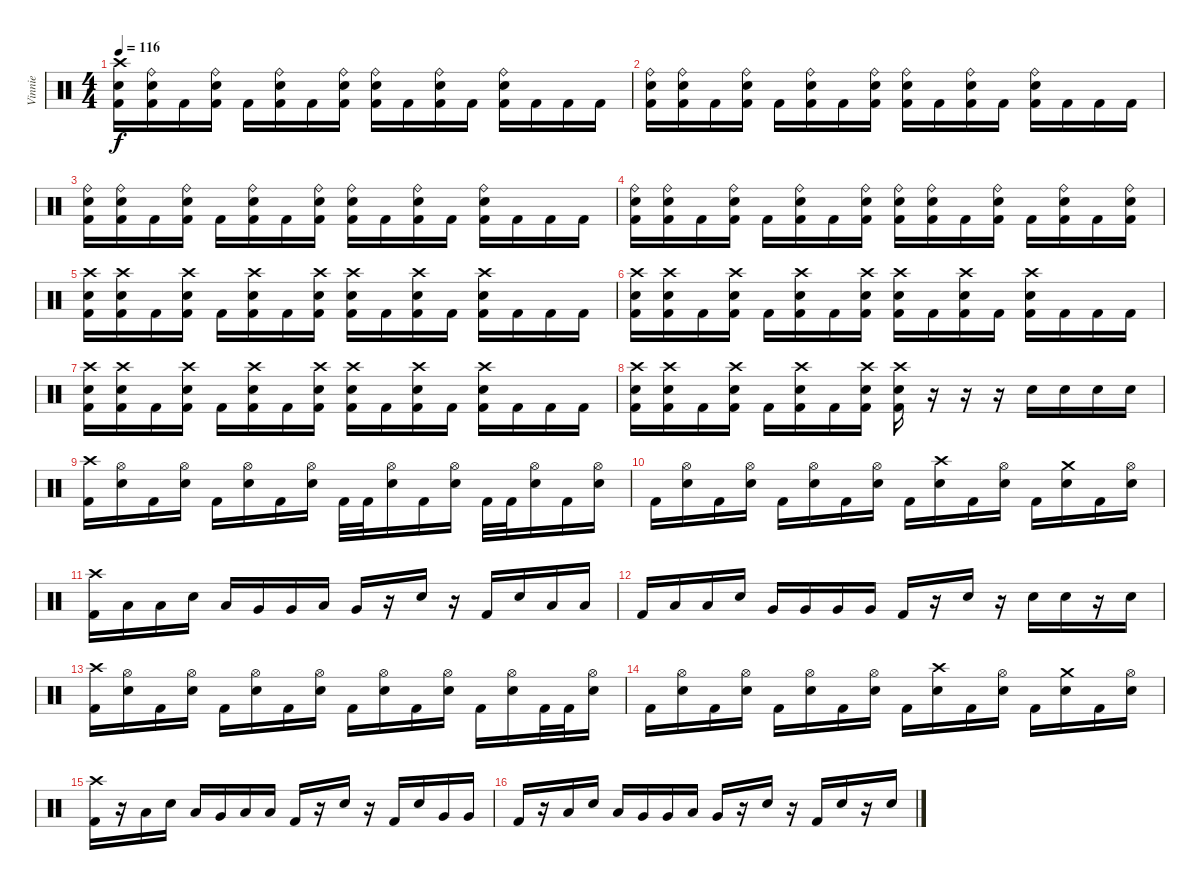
\track ("Vinnie" "Vinnie") {instrument percussion}
\staff {score}
\articulation defaults
\ts (4 4)
\tempo 116
\clef neutral
\ks c
("Crash high (hit)" "Electric Snare (hit)" "Kick (hit) 2").16{dy f} ("Ride (bell)" "Electric Snare (hit)" "Kick (hit) 2").16 "Kick (hit) 2".16 ("Ride (bell)" "Electric Snare (hit)" "Kick (hit) 2").16 "Kick (hit) 2".16 ("Ride (bell)" "Electric Snare (hit)" "Kick (hit) 2").16 "Kick (hit) 2".16 ("Ride (bell)" "Electric Snare (hit)" "Kick (hit) 2").16 ("Ride (bell)" "Electric Snare (hit)" "Kick (hit) 2").16 "Kick (hit) 2".16 ("Ride (bell)" "Electric Snare (hit)" "Kick (hit) 2").16 "Kick (hit) 2".16 ("Ride (bell)" "Electric Snare (hit)" "Kick (hit) 2").16 "Kick (hit) 2".16 "Kick (hit) 2".16 "Kick (hit) 2".16 |
("Ride (bell)" "Electric Snare (hit)" "Kick (hit) 2").16 ("Ride (bell)" "Electric Snare (hit)" "Kick (hit) 2").16 "Kick (hit) 2".16 ("Ride (bell)" "Electric Snare (hit)" "Kick (hit) 2").16 "Kick (hit) 2".16 ("Ride (bell)" "Electric Snare (hit)" "Kick (hit) 2").16 "Kick (hit) 2".16 ("Ride (bell)" "Electric Snare (hit)" "Kick (hit) 2").16 ("Ride (bell)" "Electric Snare (hit)" "Kick (hit) 2").16 "Kick (hit) 2".16 ("Ride (bell)" "Electric Snare (hit)" "Kick (hit) 2").16 "Kick (hit) 2".16 ("Ride (bell)" "Electric Snare (hit)" "Kick (hit) 2").16 "Kick (hit) 2".16 "Kick (hit) 2".16 "Kick (hit) 2".16 |
("Ride (bell)" "Electric Snare (hit)" "Kick (hit) 2").16 ("Ride (bell)" "Electric Snare (hit)" "Kick (hit) 2").16 "Kick (hit) 2".16 ("Ride (bell)" "Electric Snare (hit)" "Kick (hit) 2").16 "Kick (hit) 2".16 ("Ride (bell)" "Electric Snare (hit)" "Kick (hit) 2").16 "Kick (hit) 2".16 ("Ride (bell)" "Electric Snare (hit)" "Kick (hit) 2").16 ("Ride (bell)" "Electric Snare (hit)" "Kick (hit) 2").16 "Kick (hit) 2".16 ("Ride (bell)" "Electric Snare (hit)" "Kick (hit) 2").16 "Kick (hit) 2".16 ("Ride (bell)" "Electric Snare (hit)" "Kick (hit) 2").16 "Kick (hit) 2".16 "Kick (hit) 2".16 "Kick (hit) 2".16 |
("Ride (bell)" "Electric Snare (hit)" "Kick (hit) 2").16 ("Ride (bell)" "Electric Snare (hit)" "Kick (hit) 2").16 "Kick (hit) 2".16 ("Ride (bell)" "Electric Snare (hit)" "Kick (hit) 2").16 "Kick (hit) 2".16 ("Ride (bell)" "Electric Snare (hit)" "Kick (hit) 2").16 "Kick (hit) 2".16 ("Ride (bell)" "Electric Snare (hit)" "Kick (hit) 2").16 ("Ride (bell)" "Electric Snare (hit)" "Kick (hit) 2").16 ("Ride (bell)" "Electric Snare (hit)" "Kick (hit) 2").16 "Kick (hit) 2".16 ("Ride (bell)" "Electric Snare (hit)" "Kick (hit) 2").16 "Kick (hit) 2".16 ("Ride (bell)" "Electric Snare (hit)" "Kick (hit) 2").16 "Kick (hit) 2".16 ("Ride (bell)" "Electric Snare (hit)" "Kick (hit) 2").16 |
("Crash high (hit)" "Electric Snare (hit)" "Kick (hit) 2").16 ("Crash high (hit)" "Electric Snare (hit)" "Kick (hit) 2").16 "Kick (hit) 2".16 ("Crash high (hit)" "Electric Snare (hit)" "Kick (hit) 2").16 "Kick (hit) 2".16 ("Crash high (hit)" "Electric Snare (hit)" "Kick (hit) 2").16 "Kick (hit) 2".16 ("Crash high (hit)" "Electric Snare (hit)" "Kick (hit) 2").16 ("Crash high (hit)" "Electric Snare (hit)" "Kick (hit) 2").16 "Kick (hit) 2".16 ("Crash high (hit)" "Electric Snare (hit)" "Kick (hit) 2").16 "Kick (hit) 2".16 ("Crash high (hit)" "Electric Snare (hit)" "Kick (hit) 2").16 "Kick (hit) 2".16 "Kick (hit) 2".16 "Kick (hit) 2".16 |
("Crash high (hit)" "Electric Snare (hit)" "Kick (hit) 2").16 ("Crash high (hit)" "Electric Snare (hit)" "Kick (hit) 2").16 "Kick (hit) 2".16 ("Crash high (hit)" "Electric Snare (hit)" "Kick (hit) 2").16 "Kick (hit) 2".16 ("Crash high (hit)" "Electric Snare (hit)" "Kick (hit) 2").16 "Kick (hit) 2".16 ("Crash high (hit)" "Electric Snare (hit)" "Kick (hit) 2").16 ("Crash high (hit)" "Electric Snare (hit)" "Kick (hit) 2").16 "Kick (hit) 2".16 ("Crash high (hit)" "Electric Snare (hit)" "Kick (hit) 2").16 "Kick (hit) 2".16 ("Crash high (hit)" "Electric Snare (hit)" "Kick (hit) 2").16 "Kick (hit) 2".16 "Kick (hit) 2".16 "Kick (hit) 2".16 |
("Crash high (hit)" "Electric Snare (hit)" "Kick (hit) 2").16 ("Crash high (hit)" "Electric Snare (hit)" "Kick (hit) 2").16 "Kick (hit) 2".16 ("Crash high (hit)" "Electric Snare (hit)" "Kick (hit) 2").16 "Kick (hit) 2".16 ("Crash high (hit)" "Electric Snare (hit)" "Kick (hit) 2").16 "Kick (hit) 2".16 ("Crash high (hit)" "Electric Snare (hit)" "Kick (hit) 2").16 ("Crash high (hit)" "Electric Snare (hit)" "Kick (hit) 2").16 "Kick (hit) 2".16 ("Crash high (hit)" "Electric Snare (hit)" "Kick (hit) 2").16 "Kick (hit) 2".16 ("Crash high (hit)" "Electric Snare (hit)" "Kick (hit) 2").16 "Kick (hit) 2".16 "Kick (hit) 2".16 "Kick (hit) 2".16 |
("Crash high (hit)" "Electric Snare (hit)" "Kick (hit) 2").16 ("Crash high (hit)" "Electric Snare (hit)" "Kick (hit) 2").16 "Kick (hit) 2".16 ("Crash high (hit)" "Electric Snare (hit)" "Kick (hit) 2").16 "Kick (hit) 2".16 ("Crash high (hit)" "Electric Snare (hit)" "Kick (hit) 2").16 "Kick (hit) 2".16 ("Crash high (hit)" "Electric Snare (hit)" "Kick (hit) 2").16 ("Crash high (hit)" "Electric Snare (hit)" "Kick (hit) 2").16 r.16 r.16 r.16 "Electric Snare (hit)".16 "Electric Snare (hit)".16 "Electric Snare (hit)".16 "Electric Snare (hit)".16 |
("Crash high (hit)" "Kick (hit) 2").16 ("Hi-Hat (open)" "Electric Snare (hit)").16 "Kick (hit) 2".16 ("Hi-Hat (open)" "Electric Snare (hit)").16 "Kick (hit) 2".16 ("Hi-Hat (open)" "Electric Snare (hit)").16 "Kick (hit) 2".16 ("Hi-Hat (open)" "Electric Snare (hit)").16 "Kick (hit) 2".32 "Kick (hit) 2".32 ("Hi-Hat (open)" "Electric Snare (hit)").16 "Kick (hit) 2".16 ("Hi-Hat (open)" "Electric Snare (hit)").16 "Kick (hit) 2".32 "Kick (hit) 2".32 ("Hi-Hat (open)" "Electric Snare (hit)").16 "Kick (hit) 2".16 ("Hi-Hat (open)" "Electric Snare (hit)").16 |
"Kick (hit) 2".16 ("Hi-Hat (open)" "Electric Snare (hit)").16 "Kick (hit) 2".16 ("Hi-Hat (open)" "Electric Snare (hit)").16 "Kick (hit) 2".16 ("Hi-Hat (open)" "Electric Snare (hit)").16 "Kick (hit) 2".16 ("Hi-Hat (open)" "Electric Snare (hit)").16 "Kick (hit) 2".16 ("Crash high (hit)" "Electric Snare (hit)").16 "Kick (hit) 2".16 ("Hi-Hat (open)" "Electric Snare (hit)").16 "Kick (hit) 2".16 ("Crash medium (hit)" "Electric Snare (hit)").16 "Kick (hit) 2".16 ("Hi-Hat (open)" "Electric Snare (hit)").16 |
("Crash high (hit)" "Kick (hit) 2").16 "Low Floor Tom (hit)".16 "Low Floor Tom (hit)".16 "Electric Snare (hit)".16 "Low Floor Tom (hit)".16 "Very Low Tom (hit)".16 "Very Low Tom (hit)".16 "Low Floor Tom (hit)".16 "Very Low Tom (hit)".16 r.16 "Electric Snare (hit)".16 r.16 "Kick (hit) 2".16 "Electric Snare (hit)".16 "Low Floor Tom (hit)".16 "Low Floor Tom (hit)".16 |
"Kick (hit) 2".16 "Low Floor Tom (hit)".16 "Low Floor Tom (hit)".16 "Electric Snare (hit)".16 "Very Low Tom (hit)".16 "Very Low Tom (hit)".16 "Very Low Tom (hit)".16 "Very Low Tom (hit)".16 "Kick (hit) 2".16 r.16 "Electric Snare (hit)".16 r.16 "Electric Snare (hit)".16 "Electric Snare (hit)".16 r.16 "Electric Snare (hit)".16 |
("Crash high (hit)" "Kick (hit) 2").16 ("Hi-Hat (open)" "Electric Snare (hit)").16 "Kick (hit) 2".16 ("Hi-Hat (open)" "Electric Snare (hit)").16 "Kick (hit) 2".16 ("Hi-Hat (open)" "Electric Snare (hit)").16 "Kick (hit) 2".16 ("Hi-Hat (open)" "Electric Snare (hit)").16 "Kick (hit) 2".16 ("Hi-Hat (open)" "Electric Snare (hit)").16 "Kick (hit) 2".16 ("Hi-Hat (open)" "Electric Snare (hit)").16 "Kick (hit) 2".16 ("Hi-Hat (open)" "Electric Snare (hit)").16 "Kick (hit) 2".32 "Kick (hit) 2".32 ("Hi-Hat (open)" "Electric Snare (hit)").16 |
"Kick (hit) 2".16 ("Hi-Hat (open)" "Electric Snare (hit)").16 "Kick (hit) 2".16 ("Hi-Hat (open)" "Electric Snare (hit)").16 "Kick (hit) 2".16 ("Hi-Hat (open)" "Electric Snare (hit)").16 "Kick (hit) 2".16 ("Hi-Hat (open)" "Electric Snare (hit)").16 "Kick (hit) 2".16 ("Crash high (hit)" "Electric Snare (hit)").16 "Kick (hit) 2".16 ("Hi-Hat (open)" "Electric Snare (hit)").16 "Kick (hit) 2".16 ("Crash medium (hit)" "Electric Snare (hit)").16 "Kick (hit) 2".16 ("Hi-Hat (open)" "Electric Snare (hit)").16 |
("Crash high (hit)" "Kick (hit) 2").16 r.16 "Low Floor Tom (hit)".16 "Electric Snare (hit)".16 "Low Floor Tom (hit)".16 "Very Low Tom (hit)".16 "Low Floor Tom (hit)".16 "Low Floor Tom (hit)".16 "Kick (hit) 2".16 r.16 "Electric Snare (hit)".16 r.16 "Kick (hit) 2".16 "Electric Snare (hit)".16 "Very Low Tom (hit)".16 "Very Low Tom (hit)".16 |
"Kick (hit) 2".16 r.16 "Low Floor Tom (hit)".16 "Electric Snare (hit)".16 "Low Floor Tom (hit)".16 "Very Low Tom (hit)".16 "Very Low Tom (hit)".16 "Low Floor Tom (hit)".16 "Very Low Tom (hit)".16 r.16 "Electric Snare (hit)".16 r.16 "Kick (hit) 2".16 "Electric Snare (hit)".16 r.16 "Electric Snare (hit)".16
